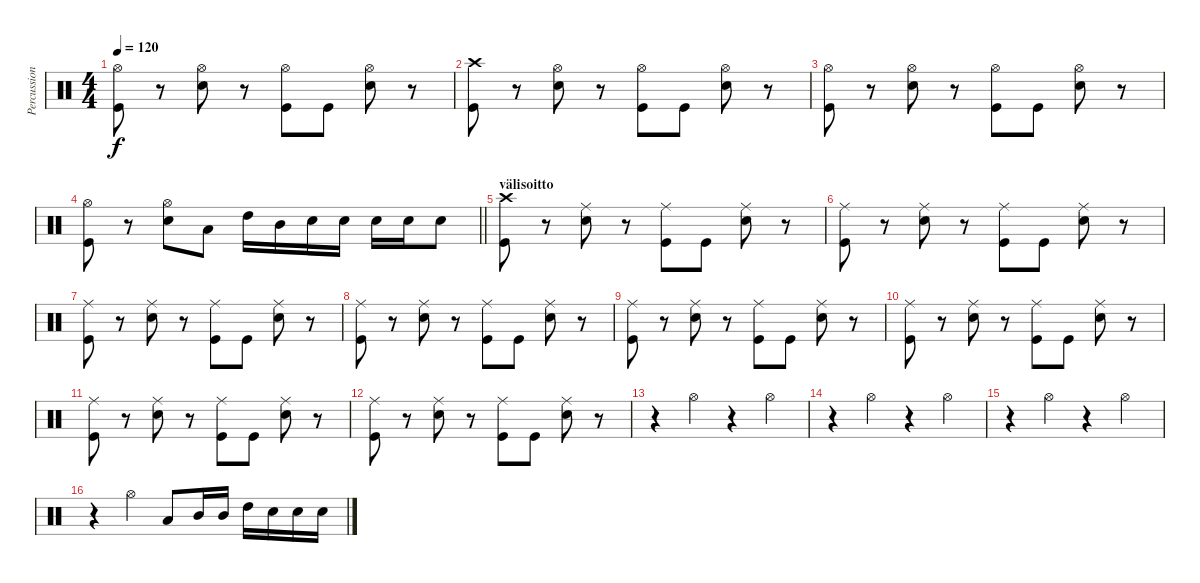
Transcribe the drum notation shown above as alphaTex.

\track ("Percussion" "Percussion") {instrument percussion}
\staff {score}
\articulation defaults
\ts (4 4)
\tempo 120
\clef neutral
\ks c
("Hi-Hat (open)" "Kick (hit)").8{dy f} r.8 ("Hi-Hat (open)" "Snare (hit) 2").8 r.8 ("Hi-Hat (open)" "Kick (hit)").8 "Kick (hit)".8 ("Hi-Hat (open)" "Snare (hit) 2").8 r.8 |
("Crash high (hit)" "Kick (hit)").8 r.8 ("Hi-Hat (open)" "Snare (hit) 2").8 r.8 ("Hi-Hat (open)" "Kick (hit)").8 "Kick (hit)".8 ("Hi-Hat (open)" "Snare (hit) 2").8 r.8 |
("Hi-Hat (open)" "Kick (hit)").8 r.8 ("Hi-Hat (open)" "Snare (hit) 2").8 r.8 ("Hi-Hat (open)" "Kick (hit)").8 "Kick (hit)".8 ("Hi-Hat (open)" "Snare (hit) 2").8 r.8 |
\barLineRight lightlight
("Hi-Hat (open)" "Kick (hit)").8 r.8 ("Hi-Hat (open)" "Snare (hit) 2").8 "Low Tom (hit)".8 "High Tom (hit)".16 "Mid Tom (hit)".16 "Snare (hit) 2".16 "Snare (hit) 2".16 "Snare (hit) 2".16 "Snare (hit) 2".16 "Snare (hit) 2".8 |
\section ("" "välisoitto")
("Crash high (hit)" "Kick (hit)").8 r.8 ("Ride (middle)" "Snare (hit) 2").8 r.8 ("Ride (middle)" "Kick (hit)").8 "Kick (hit)".8 ("Ride (middle)" "Snare (hit) 2").8 r.8 |
("Ride (middle)" "Kick (hit)").8 r.8 ("Ride (middle)" "Snare (hit) 2").8 r.8 ("Ride (middle)" "Kick (hit)").8 "Kick (hit)".8 ("Ride (middle)" "Snare (hit) 2").8 r.8 |
("Ride (middle)" "Kick (hit)").8 r.8 ("Ride (middle)" "Snare (hit) 2").8 r.8 ("Ride (middle)" "Kick (hit)").8 "Kick (hit)".8 ("Ride (middle)" "Snare (hit) 2").8 r.8 |
("Ride (middle)" "Kick (hit)").8 r.8 ("Ride (middle)" "Snare (hit) 2").8 r.8 ("Ride (middle)" "Kick (hit)").8 "Kick (hit)".8 ("Ride (middle)" "Snare (hit) 2").8 r.8 |
("Ride (middle)" "Kick (hit)").8 r.8 ("Ride (middle)" "Snare (hit) 2").8 r.8 ("Ride (middle)" "Kick (hit)").8 "Kick (hit)".8 ("Ride (middle)" "Snare (hit) 2").8 r.8 |
("Ride (middle)" "Kick (hit)").8 r.8 ("Ride (middle)" "Snare (hit) 2").8 r.8 ("Ride (middle)" "Kick (hit)").8 "Kick (hit)".8 ("Ride (middle)" "Snare (hit) 2").8 r.8 |
("Ride (middle)" "Kick (hit)").8 r.8 ("Ride (middle)" "Snare (hit) 2").8 r.8 ("Ride (middle)" "Kick (hit)").8 "Kick (hit)".8 ("Ride (middle)" "Snare (hit) 2").8 r.8 |
("Ride (middle)" "Kick (hit)").8 r.8 ("Ride (middle)" "Snare (hit) 2").8 r.8 ("Ride (middle)" "Kick (hit)").8 "Kick (hit)".8 ("Ride (middle)" "Snare (hit) 2").8 r.8 |
r.4 "Hi-Hat (open)".4 r.4 "Hi-Hat (open)".4 |
r.4 "Hi-Hat (open)".4 r.4 "Hi-Hat (open)".4 |
r.4 "Hi-Hat (open)".4 r.4 "Hi-Hat (open)".4 |
r.4 "Hi-Hat (open)".4 "Low Tom (hit)".8 "Mid Tom (hit)".16 "Mid Tom (hit)".16 "High Tom (hit)".16 "Snare (hit) 2".16 "Snare (hit) 2".16 "Snare (hit) 2".16
